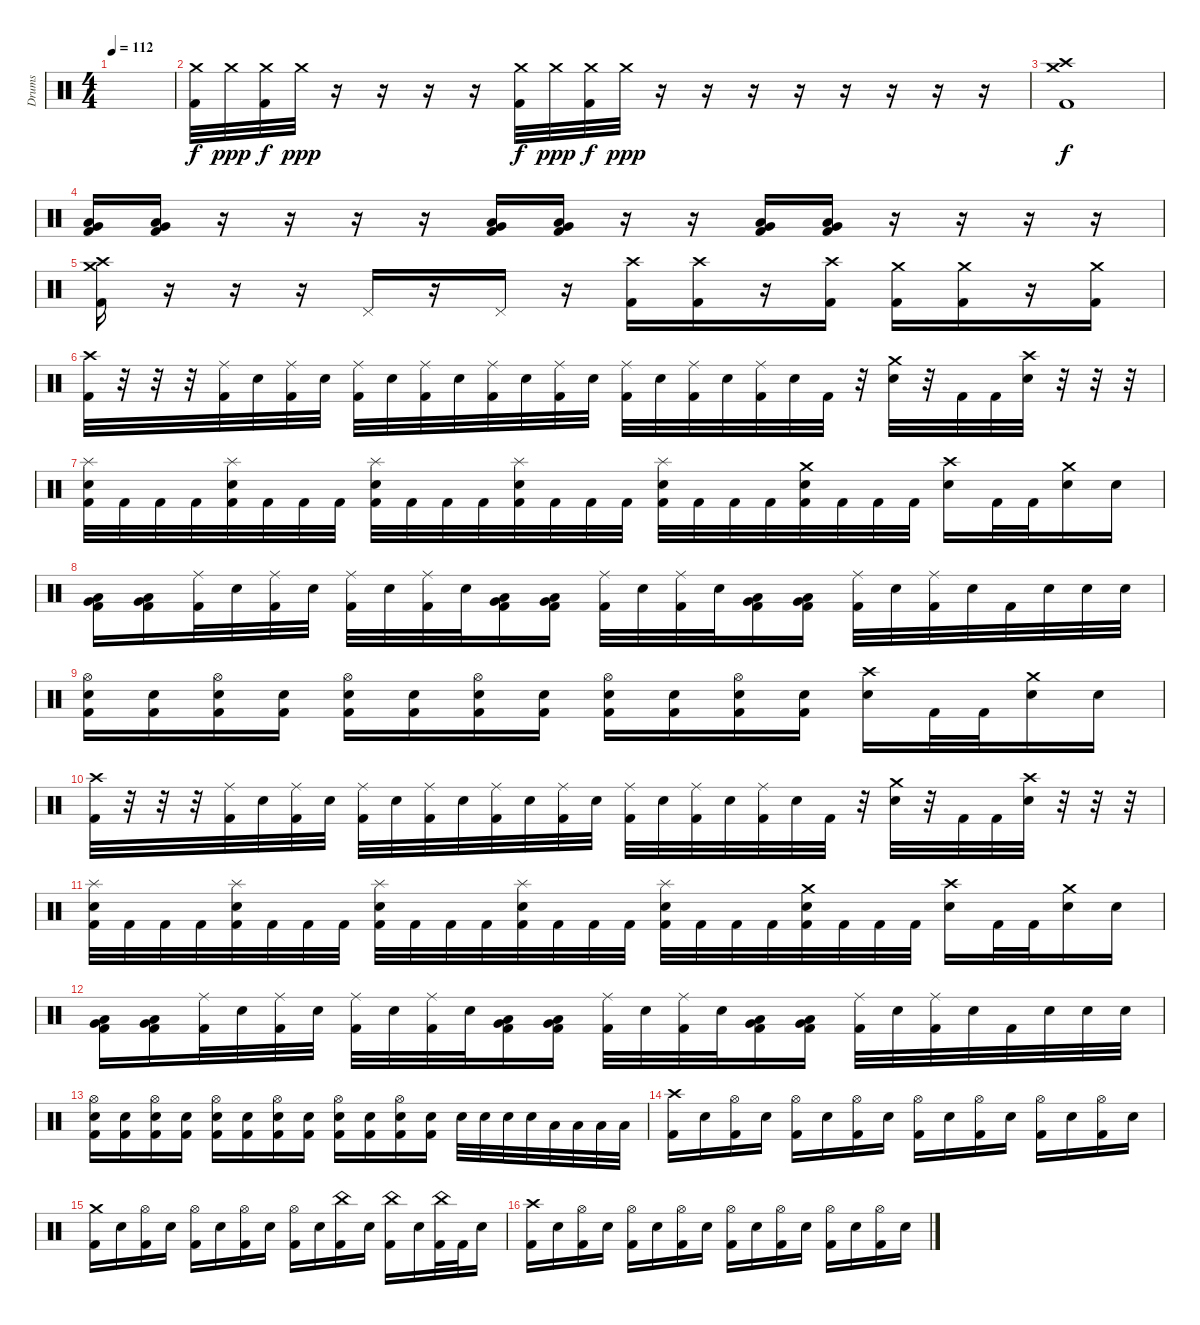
\track ("Drums" "Drums") {instrument percussion}
\staff {score}
\articulation defaults
\ts (4 4)
\tempo 112
\clef neutral
\ks c
|
("Crash medium (hit)" "Kick (hit) 2").32 "Crash medium (hit)".32{dy ppp} ("Crash medium (hit)" "Kick (hit) 2").32{dy f} "Crash medium (hit)".32{dy ppp} r.16 r.16 r.16 r.16 ("Crash medium (hit)" "Kick (hit) 2").32{dy f} "Crash medium (hit)".32{dy ppp} ("Crash medium (hit)" "Kick (hit) 2").32{dy f} "Crash medium (hit)".32{dy ppp} r.16 r.16 r.16 r.16 r.16 r.16 r.16 r.16 |
("Crash medium (hit)" "Crash high (hit)" "Kick (hit) 2").1{dy f} |
("Very Low Tom (hit)" "Low Tom (hit)" "Kick (hit) 2").16 ("Very Low Tom (hit)" "Low Tom (hit)" "Kick (hit) 2").16 r.16 r.16 r.16 r.16 ("Very Low Tom (hit)" "Low Tom (hit)" "Kick (hit) 2").16 ("Very Low Tom (hit)" "Low Tom (hit)" "Kick (hit) 2").16 r.16 r.16 ("Very Low Tom (hit)" "Low Tom (hit)" "Kick (hit) 2").16 ("Very Low Tom (hit)" "Low Tom (hit)" "Kick (hit) 2").16 r.16 r.16 r.16 r.16 |
("Crash medium (hit)" "Crash high (hit)" "Kick (hit) 2").16 r.16 r.16 r.16 "Pedal Hi-Hat (hit)".16 r.16 "Pedal Hi-Hat (hit)".16 r.16 ("Crash high (hit)" "Kick (hit) 2").16 ("Crash high (hit)" "Kick (hit) 2").16 r.16 ("Crash high (hit)" "Kick (hit) 2").16 ("Crash medium (hit)" "Kick (hit) 2").16 ("Crash medium (hit)" "Kick (hit) 2").16 r.16 ("Crash medium (hit)" "Kick (hit) 2").16 |
("Crash high (hit)" "Kick (hit) 2").32 r.32 r.32 r.32 ("Ride (middle)" "Kick (hit) 2").32 "Snare (hit) 2".32 ("Ride (middle)" "Kick (hit) 2").32 "Snare (hit) 2".32 ("Ride (middle)" "Kick (hit) 2").32 "Snare (hit) 2".32 ("Ride (middle)" "Kick (hit) 2").32 "Snare (hit) 2".32 ("Ride (middle)" "Kick (hit) 2").32 "Snare (hit) 2".32 ("Ride (middle)" "Kick (hit) 2").32 "Snare (hit) 2".32 ("Ride (middle)" "Kick (hit) 2").32 "Snare (hit) 2".32 ("Ride (middle)" "Kick (hit) 2").32 "Snare (hit) 2".32 ("Ride (middle)" "Kick (hit) 2").32 "Snare (hit) 2".32 "Kick (hit) 2".32 r.32 ("Crash medium (hit)" "Snare (hit) 2").32 r.32 "Kick (hit) 2".32 "Kick (hit) 2".32 ("Crash high (hit)" "Snare (hit) 2").32 r.32 r.32 r.32 |
("Splash (hit)" "Snare (hit) 2" "Kick (hit) 2").32 "Kick (hit) 2".32 "Kick (hit) 2".32 "Kick (hit) 2".32 ("Splash (hit)" "Snare (hit) 2" "Kick (hit) 2").32 "Kick (hit) 2".32 "Kick (hit) 2".32 "Kick (hit) 2".32 ("Splash (hit)" "Snare (hit) 2" "Kick (hit) 2").32 "Kick (hit) 2".32 "Kick (hit) 2".32 "Kick (hit) 2".32 ("Splash (hit)" "Snare (hit) 2" "Kick (hit) 2").32 "Kick (hit) 2".32 "Kick (hit) 2".32 "Kick (hit) 2".32 ("Splash (hit)" "Snare (hit) 2" "Kick (hit) 2").32 "Kick (hit) 2".32 "Kick (hit) 2".32 "Kick (hit) 2".32 ("Crash medium (hit)" "Snare (hit) 2" "Kick (hit) 2").32 "Kick (hit) 2".32 "Kick (hit) 2".32 "Kick (hit) 2".32 ("Crash high (hit)" "Snare (hit) 2").16 "Kick (hit) 2".32 "Kick (hit) 2".32 ("Crash medium (hit)" "Snare (hit) 2").16 "Snare (hit) 2".16 |
("Very Low Tom (hit)" "Low Tom (hit)" "Kick (hit) 2").16 ("Very Low Tom (hit)" "Low Tom (hit)" "Kick (hit) 2").16 ("Ride (middle)" "Kick (hit) 2").32 "Snare (hit) 2".32 ("Ride (middle)" "Kick (hit) 2").32 "Snare (hit) 2".32 ("Ride (middle)" "Kick (hit) 2").32 "Snare (hit) 2".32 ("Ride (middle)" "Kick (hit) 2").32 "Snare (hit) 2".32 ("Very Low Tom (hit)" "Low Tom (hit)" "Kick (hit) 2").16 ("Very Low Tom (hit)" "Low Tom (hit)" "Kick (hit) 2").16 ("Ride (middle)" "Kick (hit) 2").32 "Snare (hit) 2".32 ("Ride (middle)" "Kick (hit) 2").32 "Snare (hit) 2".32 ("Very Low Tom (hit)" "Low Tom (hit)" "Kick (hit) 2").16 ("Very Low Tom (hit)" "Low Tom (hit)" "Kick (hit) 2").16 ("Ride (middle)" "Kick (hit) 2").32 "Snare (hit) 2".32 ("Ride (middle)" "Kick (hit) 2").32 "Snare (hit) 2".32 "Kick (hit) 2".32 "Snare (hit) 2".32 "Snare (hit) 2".32 "Snare (hit) 2".32 |
("Hi-Hat (open)" "Snare (hit) 2" "Kick (hit) 2").16 ("Snare (hit) 2" "Kick (hit) 2").16 ("Hi-Hat (open)" "Snare (hit) 2" "Kick (hit) 2").16 ("Snare (hit) 2" "Kick (hit) 2").16 ("Hi-Hat (open)" "Snare (hit) 2" "Kick (hit) 2").16 ("Snare (hit) 2" "Kick (hit) 2").16 ("Hi-Hat (open)" "Snare (hit) 2" "Kick (hit) 2").16 ("Snare (hit) 2" "Kick (hit) 2").16 ("Hi-Hat (open)" "Snare (hit) 2" "Kick (hit) 2").16 ("Snare (hit) 2" "Kick (hit) 2").16 ("Hi-Hat (open)" "Snare (hit) 2" "Kick (hit) 2").16 ("Snare (hit) 2" "Kick (hit) 2").16 ("Crash high (hit)" "Snare (hit) 2").16 "Kick (hit) 2".32 "Kick (hit) 2".32 ("Crash medium (hit)" "Snare (hit) 2").16 "Snare (hit) 2".16 |
("Crash high (hit)" "Kick (hit) 2").32 r.32 r.32 r.32 ("Ride (middle)" "Kick (hit) 2").32 "Snare (hit) 2".32 ("Ride (middle)" "Kick (hit) 2").32 "Snare (hit) 2".32 ("Ride (middle)" "Kick (hit) 2").32 "Snare (hit) 2".32 ("Ride (middle)" "Kick (hit) 2").32 "Snare (hit) 2".32 ("Ride (middle)" "Kick (hit) 2").32 "Snare (hit) 2".32 ("Ride (middle)" "Kick (hit) 2").32 "Snare (hit) 2".32 ("Ride (middle)" "Kick (hit) 2").32 "Snare (hit) 2".32 ("Ride (middle)" "Kick (hit) 2").32 "Snare (hit) 2".32 ("Ride (middle)" "Kick (hit) 2").32 "Snare (hit) 2".32 "Kick (hit) 2".32 r.32 ("Crash medium (hit)" "Snare (hit) 2").32 r.32 "Kick (hit) 2".32 "Kick (hit) 2".32 ("Crash high (hit)" "Snare (hit) 2").32 r.32 r.32 r.32 |
("Splash (hit)" "Snare (hit) 2" "Kick (hit) 2").32 "Kick (hit) 2".32 "Kick (hit) 2".32 "Kick (hit) 2".32 ("Splash (hit)" "Snare (hit) 2" "Kick (hit) 2").32 "Kick (hit) 2".32 "Kick (hit) 2".32 "Kick (hit) 2".32 ("Splash (hit)" "Snare (hit) 2" "Kick (hit) 2").32 "Kick (hit) 2".32 "Kick (hit) 2".32 "Kick (hit) 2".32 ("Splash (hit)" "Snare (hit) 2" "Kick (hit) 2").32 "Kick (hit) 2".32 "Kick (hit) 2".32 "Kick (hit) 2".32 ("Splash (hit)" "Snare (hit) 2" "Kick (hit) 2").32 "Kick (hit) 2".32 "Kick (hit) 2".32 "Kick (hit) 2".32 ("Crash medium (hit)" "Snare (hit) 2" "Kick (hit) 2").32 "Kick (hit) 2".32 "Kick (hit) 2".32 "Kick (hit) 2".32 ("Crash high (hit)" "Snare (hit) 2").16 "Kick (hit) 2".32 "Kick (hit) 2".32 ("Crash medium (hit)" "Snare (hit) 2").16 "Snare (hit) 2".16 |
("Very Low Tom (hit)" "Low Tom (hit)" "Kick (hit) 2").16 ("Very Low Tom (hit)" "Low Tom (hit)" "Kick (hit) 2").16 ("Ride (middle)" "Kick (hit) 2").32 "Snare (hit) 2".32 ("Ride (middle)" "Kick (hit) 2").32 "Snare (hit) 2".32 ("Ride (middle)" "Kick (hit) 2").32 "Snare (hit) 2".32 ("Ride (middle)" "Kick (hit) 2").32 "Snare (hit) 2".32 ("Very Low Tom (hit)" "Low Tom (hit)" "Kick (hit) 2").16 ("Very Low Tom (hit)" "Low Tom (hit)" "Kick (hit) 2").16 ("Ride (middle)" "Kick (hit) 2").32 "Snare (hit) 2".32 ("Ride (middle)" "Kick (hit) 2").32 "Snare (hit) 2".32 ("Very Low Tom (hit)" "Low Tom (hit)" "Kick (hit) 2").16 ("Very Low Tom (hit)" "Low Tom (hit)" "Kick (hit) 2").16 ("Ride (middle)" "Kick (hit) 2").32 "Snare (hit) 2".32 ("Ride (middle)" "Kick (hit) 2").32 "Snare (hit) 2".32 "Kick (hit) 2".32 "Snare (hit) 2".32 "Snare (hit) 2".32 "Snare (hit) 2".32 |
("Hi-Hat (open)" "Snare (hit) 2" "Kick (hit) 2").16 ("Snare (hit) 2" "Kick (hit) 2").16 ("Hi-Hat (open)" "Snare (hit) 2" "Kick (hit) 2").16 ("Snare (hit) 2" "Kick (hit) 2").16 ("Hi-Hat (open)" "Snare (hit) 2" "Kick (hit) 2").16 ("Snare (hit) 2" "Kick (hit) 2").16 ("Hi-Hat (open)" "Snare (hit) 2" "Kick (hit) 2").16 ("Snare (hit) 2" "Kick (hit) 2").16 ("Hi-Hat (open)" "Snare (hit) 2" "Kick (hit) 2").16 ("Snare (hit) 2" "Kick (hit) 2").16 ("Hi-Hat (open)" "Snare (hit) 2" "Kick (hit) 2").16 ("Snare (hit) 2" "Kick (hit) 2").16 "Snare (hit) 2".32 "Snare (hit) 2".32 "Snare (hit) 2".32 "Snare (hit) 2".32 "Low Tom (hit)".32 "Low Tom (hit)".32 "Low Tom (hit)".32 "Low Tom (hit)".32 |
("Crash high (hit)" "Kick (hit) 2").16 "Snare (hit) 2".16 ("Hi-Hat (open)" "Kick (hit) 2").16 "Snare (hit) 2".16 ("Hi-Hat (open)" "Kick (hit) 2").16 "Snare (hit) 2".16 ("Hi-Hat (open)" "Kick (hit) 2").16 "Snare (hit) 2".16 ("Hi-Hat (open)" "Kick (hit) 2").16 "Snare (hit) 2".16 ("Hi-Hat (open)" "Kick (hit) 2").16 "Snare (hit) 2".16 ("Hi-Hat (open)" "Kick (hit) 2").16 "Snare (hit) 2".16 ("Hi-Hat (open)" "Kick (hit) 2").16 "Snare (hit) 2".16 |
("Crash medium (hit)" "Kick (hit) 2").16 "Snare (hit) 2".16 ("Hi-Hat (open)" "Kick (hit) 2").16 "Snare (hit) 2".16 ("Hi-Hat (open)" "Kick (hit) 2").16 "Snare (hit) 2".16 ("Hi-Hat (open)" "Kick (hit) 2").16 "Snare (hit) 2".16 ("Hi-Hat (open)" "Kick (hit) 2").16 "Snare (hit) 2".16 ("China (hit)" "Kick (hit) 2").16 "Snare (hit) 2".16 ("China (hit)" "Kick (hit) 2").16 "Snare (hit) 2".16 ("China (hit)" "Kick (hit) 2").32 "Kick (hit) 2".32 "Snare (hit) 2".16 |
("Crash high (hit)" "Kick (hit) 2").16 "Snare (hit) 2".16 ("Hi-Hat (open)" "Kick (hit) 2").16 "Snare (hit) 2".16 ("Hi-Hat (open)" "Kick (hit) 2").16 "Snare (hit) 2".16 ("Hi-Hat (open)" "Kick (hit) 2").16 "Snare (hit) 2".16 ("Hi-Hat (open)" "Kick (hit) 2").16 "Snare (hit) 2".16 ("Hi-Hat (open)" "Kick (hit) 2").16 "Snare (hit) 2".16 ("Hi-Hat (open)" "Kick (hit) 2").16 "Snare (hit) 2".16 ("Hi-Hat (open)" "Kick (hit) 2").16 "Snare (hit) 2".16
